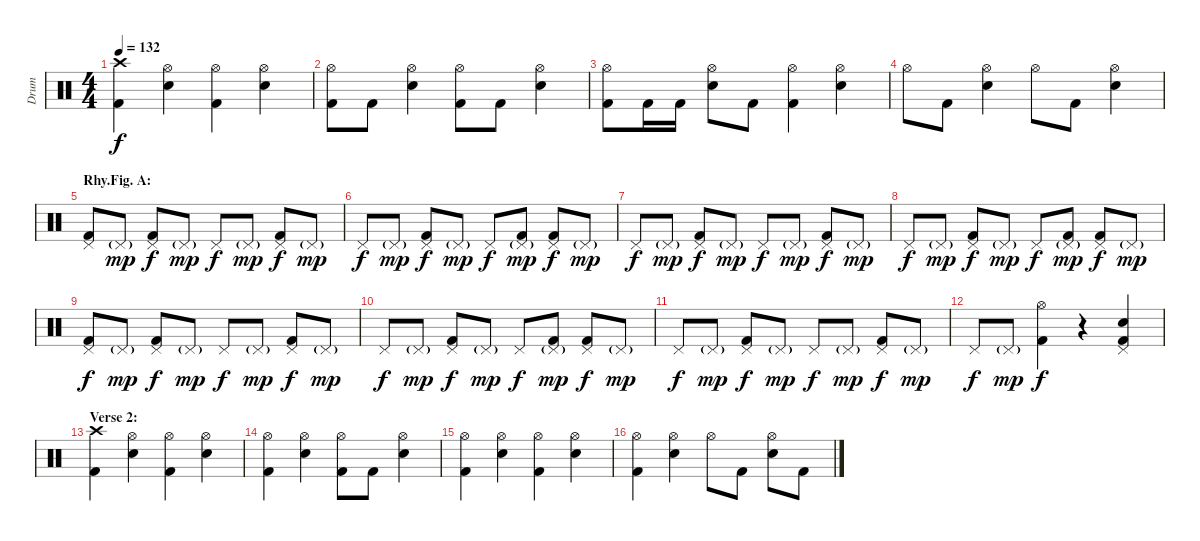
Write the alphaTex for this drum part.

\track ("Drum" "Drum") {instrument percussion}
\staff {score}
\articulation defaults
\ts (4 4)
\tempo 132
\clef neutral
\ks c
("Crash high (hit)" "Kick (hit) 2").4{dy f} ("Hi-Hat (open)" "Snare (hit) 2").4 ("Hi-Hat (open)" "Kick (hit) 2").4 ("Hi-Hat (open)" "Snare (hit) 2").4 |
("Hi-Hat (open)" "Kick (hit) 2").8 "Kick (hit) 2".8 ("Hi-Hat (open)" "Snare (hit) 2").4 ("Hi-Hat (open)" "Kick (hit) 2").8 "Kick (hit) 2".8 ("Hi-Hat (open)" "Snare (hit) 2").4 |
("Hi-Hat (open)" "Kick (hit) 2").8 "Kick (hit) 2".16 "Kick (hit) 2".16 ("Hi-Hat (open)" "Snare (hit) 2").8 "Kick (hit) 2".8 ("Hi-Hat (open)" "Kick (hit) 2").4 ("Hi-Hat (open)" "Snare (hit) 2").4 |
"Hi-Hat (open)".8 "Kick (hit) 2".8 ("Hi-Hat (open)" "Snare (hit) 2").4 "Hi-Hat (open)".8 "Kick (hit) 2".8 ("Hi-Hat (open)" "Snare (hit) 2").4 |
\section ("" "Rhy.Fig. A:")
("Pedal Hi-Hat (hit)" "Kick (hit) 2").8 "Pedal Hi-Hat (hit)"{g}.8{dy mp} ("Pedal Hi-Hat (hit)" "Kick (hit) 2").8{dy f} "Pedal Hi-Hat (hit)"{g}.8{dy mp} "Pedal Hi-Hat (hit)".8{dy f} "Pedal Hi-Hat (hit)"{g}.8{dy mp} ("Pedal Hi-Hat (hit)" "Kick (hit) 2").8{dy f} "Pedal Hi-Hat (hit)"{g}.8{dy mp} |
"Pedal Hi-Hat (hit)".8{dy f} "Pedal Hi-Hat (hit)"{g}.8{dy mp} ("Pedal Hi-Hat (hit)" "Kick (hit) 2").8{dy f} "Pedal Hi-Hat (hit)"{g}.8{dy mp} "Pedal Hi-Hat (hit)".8{dy f} ("Pedal Hi-Hat (hit)"{g} "Kick (hit) 2").8{dy mp} ("Pedal Hi-Hat (hit)" "Kick (hit) 2").8{dy f} "Pedal Hi-Hat (hit)"{g}.8{dy mp} |
"Pedal Hi-Hat (hit)".8{dy f} "Pedal Hi-Hat (hit)"{g}.8{dy mp} ("Pedal Hi-Hat (hit)" "Kick (hit) 2").8{dy f} "Pedal Hi-Hat (hit)"{g}.8{dy mp} "Pedal Hi-Hat (hit)".8{dy f} "Pedal Hi-Hat (hit)"{g}.8{dy mp} ("Pedal Hi-Hat (hit)" "Kick (hit) 2").8{dy f} "Pedal Hi-Hat (hit)"{g}.8{dy mp} |
"Pedal Hi-Hat (hit)".8{dy f} "Pedal Hi-Hat (hit)"{g}.8{dy mp} ("Pedal Hi-Hat (hit)" "Kick (hit) 2").8{dy f} "Pedal Hi-Hat (hit)"{g}.8{dy mp} "Pedal Hi-Hat (hit)".8{dy f} ("Pedal Hi-Hat (hit)"{g} "Kick (hit) 2").8{dy mp} ("Pedal Hi-Hat (hit)" "Kick (hit) 2").8{dy f} "Pedal Hi-Hat (hit)"{g}.8{dy mp} |
("Pedal Hi-Hat (hit)" "Kick (hit) 2").8{dy f} "Pedal Hi-Hat (hit)"{g}.8{dy mp} ("Pedal Hi-Hat (hit)" "Kick (hit) 2").8{dy f} "Pedal Hi-Hat (hit)"{g}.8{dy mp} "Pedal Hi-Hat (hit)".8{dy f} "Pedal Hi-Hat (hit)"{g}.8{dy mp} ("Pedal Hi-Hat (hit)" "Kick (hit) 2").8{dy f} "Pedal Hi-Hat (hit)"{g}.8{dy mp} |
"Pedal Hi-Hat (hit)".8{dy f} "Pedal Hi-Hat (hit)"{g}.8{dy mp} ("Pedal Hi-Hat (hit)" "Kick (hit) 2").8{dy f} "Pedal Hi-Hat (hit)"{g}.8{dy mp} "Pedal Hi-Hat (hit)".8{dy f} ("Pedal Hi-Hat (hit)"{g} "Kick (hit) 2").8{dy mp} ("Pedal Hi-Hat (hit)" "Kick (hit) 2").8{dy f} "Pedal Hi-Hat (hit)"{g}.8{dy mp} |
"Pedal Hi-Hat (hit)".8{dy f} "Pedal Hi-Hat (hit)"{g}.8{dy mp} ("Pedal Hi-Hat (hit)" "Kick (hit) 2").8{dy f} "Pedal Hi-Hat (hit)"{g}.8{dy mp} "Pedal Hi-Hat (hit)".8{dy f} "Pedal Hi-Hat (hit)"{g}.8{dy mp} ("Pedal Hi-Hat (hit)" "Kick (hit) 2").8{dy f} "Pedal Hi-Hat (hit)"{g}.8{dy mp} |
"Pedal Hi-Hat (hit)".8{dy f} "Pedal Hi-Hat (hit)"{g}.8{dy mp} ("Hi-Hat (open)" "Kick (hit) 2").4{dy f} r.4 ("Pedal Hi-Hat (hit)" "Snare (hit) 2" "Kick (hit) 2").4 |
\section ("" "Verse 2:")
("Crash high (hit)" "Kick (hit) 2").4 ("Hi-Hat (open)" "Snare (hit) 2").4 ("Hi-Hat (open)" "Kick (hit) 2").4 ("Hi-Hat (open)" "Snare (hit) 2").4 |
("Hi-Hat (open)" "Kick (hit) 2").4 ("Hi-Hat (open)" "Snare (hit) 2").4 ("Hi-Hat (open)" "Kick (hit) 2").8 "Kick (hit) 2".8 ("Hi-Hat (open)" "Snare (hit) 2").4 |
("Hi-Hat (open)" "Kick (hit) 2").4 ("Hi-Hat (open)" "Snare (hit) 2").4 ("Hi-Hat (open)" "Kick (hit) 2").4 ("Hi-Hat (open)" "Snare (hit) 2").4 |
("Hi-Hat (open)" "Kick (hit) 2").4 ("Hi-Hat (open)" "Snare (hit) 2").4 "Hi-Hat (open)".8 "Kick (hit) 2".8 ("Hi-Hat (open)" "Snare (hit) 2").8 "Kick (hit) 2".8
